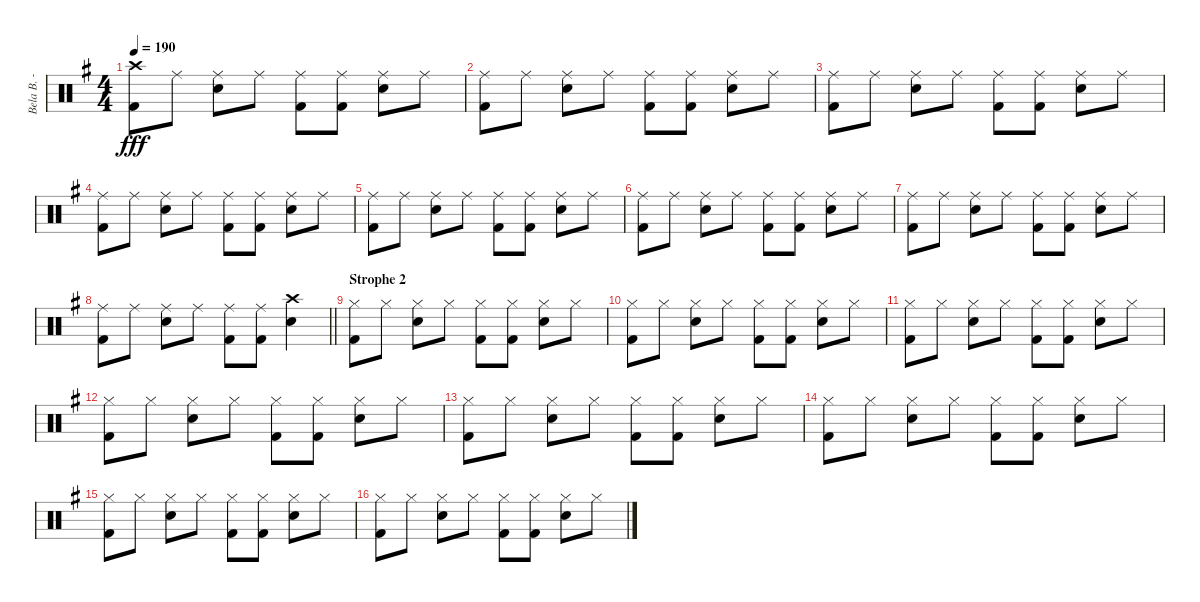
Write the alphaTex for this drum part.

\track ("Bela B. - Drums" "Bela B. - ") {instrument percussion}
\staff {score}
\articulation defaults
\ts (4 4)
\tempo 190
\clef neutral
\ks g
("Crash high (hit)" "Kick (hit) 2").8{dy fff} "Ride (middle)".8 ("Ride (middle)" "Snare (hit) 2").8 "Ride (middle)".8 ("Ride (middle)" "Kick (hit) 2").8 ("Ride (middle)" "Kick (hit) 2").8 ("Ride (middle)" "Snare (hit) 2").8 "Ride (middle)".8 |
("Ride (middle)" "Kick (hit) 2").8 "Ride (middle)".8 ("Ride (middle)" "Snare (hit) 2").8 "Ride (middle)".8 ("Ride (middle)" "Kick (hit) 2").8 ("Ride (middle)" "Kick (hit) 2").8 ("Ride (middle)" "Snare (hit) 2").8 "Ride (middle)".8 |
("Ride (middle)" "Kick (hit) 2").8 "Ride (middle)".8 ("Ride (middle)" "Snare (hit) 2").8 "Ride (middle)".8 ("Ride (middle)" "Kick (hit) 2").8 ("Ride (middle)" "Kick (hit) 2").8 ("Ride (middle)" "Snare (hit) 2").8 "Ride (middle)".8 |
("Ride (middle)" "Kick (hit) 2").8 "Ride (middle)".8 ("Ride (middle)" "Snare (hit) 2").8 "Ride (middle)".8 ("Ride (middle)" "Kick (hit) 2").8 ("Ride (middle)" "Kick (hit) 2").8 ("Ride (middle)" "Snare (hit) 2").8 "Ride (middle)".8 |
("Ride (middle)" "Kick (hit) 2").8 "Ride (middle)".8 ("Ride (middle)" "Snare (hit) 2").8 "Ride (middle)".8 ("Ride (middle)" "Kick (hit) 2").8 ("Ride (middle)" "Kick (hit) 2").8 ("Ride (middle)" "Snare (hit) 2").8 "Ride (middle)".8 |
("Ride (middle)" "Kick (hit) 2").8 "Ride (middle)".8 ("Ride (middle)" "Snare (hit) 2").8 "Ride (middle)".8 ("Ride (middle)" "Kick (hit) 2").8 ("Ride (middle)" "Kick (hit) 2").8 ("Ride (middle)" "Snare (hit) 2").8 "Ride (middle)".8 |
("Ride (middle)" "Kick (hit) 2").8 "Ride (middle)".8 ("Ride (middle)" "Snare (hit) 2").8 "Ride (middle)".8 ("Ride (middle)" "Kick (hit) 2").8 ("Ride (middle)" "Kick (hit) 2").8 ("Ride (middle)" "Snare (hit) 2").8 "Ride (middle)".8 |
\barLineRight lightlight
("Ride (middle)" "Kick (hit) 2").8 "Ride (middle)".8 ("Ride (middle)" "Snare (hit) 2").8 "Ride (middle)".8 ("Ride (middle)" "Kick (hit) 2").8 ("Ride (middle)" "Kick (hit) 2").8 ("Crash high (hit)" "Snare (hit) 2").4 |
\section ("" "Strophe 2")
("Hi-Hat (closed)" "Kick (hit) 2").8 "Hi-Hat (closed)".8 ("Hi-Hat (closed)" "Snare (hit) 2").8 "Hi-Hat (closed)".8 ("Hi-Hat (closed)" "Kick (hit) 2").8 ("Hi-Hat (closed)" "Kick (hit) 2").8 ("Hi-Hat (closed)" "Snare (hit) 2").8 "Hi-Hat (closed)".8 |
("Hi-Hat (closed)" "Kick (hit) 2").8 "Hi-Hat (closed)".8 ("Hi-Hat (closed)" "Snare (hit) 2").8 "Hi-Hat (closed)".8 ("Hi-Hat (closed)" "Kick (hit) 2").8 ("Hi-Hat (closed)" "Kick (hit) 2").8 ("Hi-Hat (closed)" "Snare (hit) 2").8 "Hi-Hat (closed)".8 |
("Hi-Hat (closed)" "Kick (hit) 2").8 "Hi-Hat (closed)".8 ("Hi-Hat (closed)" "Snare (hit) 2").8 "Hi-Hat (closed)".8 ("Hi-Hat (closed)" "Kick (hit) 2").8 ("Hi-Hat (closed)" "Kick (hit) 2").8 ("Hi-Hat (closed)" "Snare (hit) 2").8 "Hi-Hat (closed)".8 |
("Hi-Hat (closed)" "Kick (hit) 2").8 "Hi-Hat (closed)".8 ("Hi-Hat (closed)" "Snare (hit) 2").8 "Hi-Hat (closed)".8 ("Hi-Hat (closed)" "Kick (hit) 2").8 ("Hi-Hat (closed)" "Kick (hit) 2").8 ("Hi-Hat (closed)" "Snare (hit) 2").8 "Hi-Hat (closed)".8 |
("Hi-Hat (closed)" "Kick (hit) 2").8 "Hi-Hat (closed)".8 ("Hi-Hat (closed)" "Snare (hit) 2").8 "Hi-Hat (closed)".8 ("Hi-Hat (closed)" "Kick (hit) 2").8 ("Hi-Hat (closed)" "Kick (hit) 2").8 ("Hi-Hat (closed)" "Snare (hit) 2").8 "Hi-Hat (closed)".8 |
("Hi-Hat (closed)" "Kick (hit) 2").8 "Hi-Hat (closed)".8 ("Hi-Hat (closed)" "Snare (hit) 2").8 "Hi-Hat (closed)".8 ("Hi-Hat (closed)" "Kick (hit) 2").8 ("Hi-Hat (closed)" "Kick (hit) 2").8 ("Hi-Hat (closed)" "Snare (hit) 2").8 "Hi-Hat (closed)".8 |
("Hi-Hat (closed)" "Kick (hit) 2").8 "Hi-Hat (closed)".8 ("Hi-Hat (closed)" "Snare (hit) 2").8 "Hi-Hat (closed)".8 ("Hi-Hat (closed)" "Kick (hit) 2").8 ("Hi-Hat (closed)" "Kick (hit) 2").8 ("Hi-Hat (closed)" "Snare (hit) 2").8 "Hi-Hat (closed)".8 |
("Hi-Hat (closed)" "Kick (hit) 2").8 "Hi-Hat (closed)".8 ("Hi-Hat (closed)" "Snare (hit) 2").8 "Hi-Hat (closed)".8 ("Hi-Hat (closed)" "Kick (hit) 2").8 ("Hi-Hat (closed)" "Kick (hit) 2").8 ("Hi-Hat (closed)" "Snare (hit) 2").8 "Hi-Hat (closed)".8
